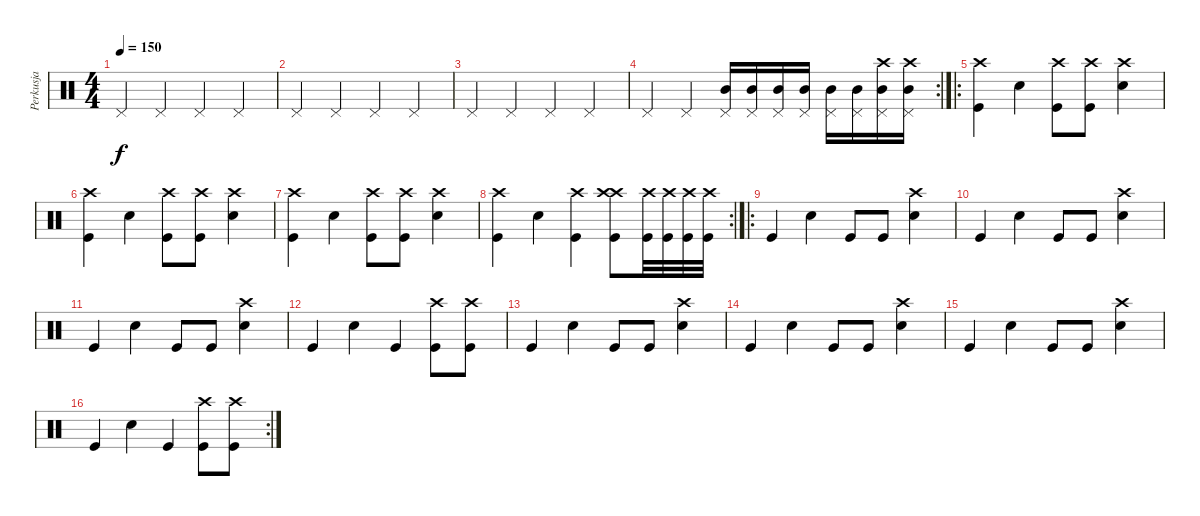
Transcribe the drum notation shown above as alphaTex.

\track ("Perkusja" "Perkusja") {instrument percussion}
\staff {score}
\articulation defaults
\ts (4 4)
\tempo 150
\clef neutral
\ks c "Pedal Hi-Hat (hit)".4{dy f} "Pedal Hi-Hat (hit)".4 "Pedal Hi-Hat (hit)".4 "Pedal Hi-Hat (hit)".4
|
"Pedal Hi-Hat (hit)".4 "Pedal Hi-Hat (hit)".4 "Pedal Hi-Hat (hit)".4 "Pedal Hi-Hat (hit)".4 |
"Pedal Hi-Hat (hit)".4 "Pedal Hi-Hat (hit)".4 "Pedal Hi-Hat (hit)".4 "Pedal Hi-Hat (hit)".4 |
\rc 2 "Pedal Hi-Hat (hit)".4 "Pedal Hi-Hat (hit)".4
("Mid Tom (hit)" "Pedal Hi-Hat (hit)").16 ("Mid Tom (hit)" "Pedal Hi-Hat (hit)").16 ("Mid Tom (hit)" "Pedal Hi-Hat (hit)").16 ("Mid Tom (hit)" "Pedal Hi-Hat (hit)").16 ("Mid Tom (hit)" "Pedal Hi-Hat (hit)").16 ("Mid Tom (hit)" "Pedal Hi-Hat (hit)").16 ("Mid Tom (hit)" "Crash high (hit)" "Pedal Hi-Hat (hit)").16 ("Mid Tom (hit)" "Crash high (hit)" "Pedal Hi-Hat (hit)").16 |
\ro
("Kick (hit)" "Crash high (hit)").4 "Electric Snare (hit)".4 ("Kick (hit)" "Crash high (hit)").8 ("Kick (hit)" "Crash high (hit)").8 ("Crash high (hit)" "Electric Snare (hit)").4 |
("Kick (hit)" "Crash high (hit)").4 "Electric Snare (hit)".4 ("Kick (hit)" "Crash high (hit)").8 ("Kick (hit)" "Crash high (hit)").8 ("Crash high (hit)" "Electric Snare (hit)").4 |
("Kick (hit)" "Crash high (hit)").4 "Electric Snare (hit)".4 ("Kick (hit)" "Crash high (hit)").8 ("Kick (hit)" "Crash high (hit)").8 ("Crash high (hit)" "Electric Snare (hit)").4 |
\rc 2
("Kick (hit)" "Crash high (hit)").4 "Electric Snare (hit)".4 ("Kick (hit)" "Crash high (hit)").4 ("Crash high (hit)" "Kick (hit)" "Crash high (hit)").8 ("Crash high (hit)" "Kick (hit)").32 ("Crash high (hit)" "Kick (hit)").32 ("Crash high (hit)" "Kick (hit)").32 ("Crash high (hit)" "Kick (hit)").32 |
\ro "Kick (hit)".4 "Electric Snare (hit)".4 "Kick (hit)".8 "Kick (hit)".8
("Crash high (hit)" "Electric Snare (hit)").4 |
"Kick (hit)".4 "Electric Snare (hit)".4 "Kick (hit)".8 "Kick (hit)".8 ("Crash high (hit)" "Electric Snare (hit)").4 |
"Kick (hit)".4 "Electric Snare (hit)".4 "Kick (hit)".8 "Kick (hit)".8 ("Crash high (hit)" "Electric Snare (hit)").4 |
"Kick (hit)".4 "Electric Snare (hit)".4 "Kick (hit)".4 ("Crash high (hit)" "Kick (hit)").8 ("Crash high (hit)" "Kick (hit)").8 |
"Kick (hit)".4 "Electric Snare (hit)".4 "Kick (hit)".8 "Kick (hit)".8 ("Crash high (hit)" "Electric Snare (hit)").4 |
"Kick (hit)".4 "Electric Snare (hit)".4 "Kick (hit)".8 "Kick (hit)".8 ("Crash high (hit)" "Electric Snare (hit)").4 |
"Kick (hit)".4 "Electric Snare (hit)".4 "Kick (hit)".8 "Kick (hit)".8 ("Crash high (hit)" "Electric Snare (hit)").4 |
\rc 2 "Kick (hit)".4 "Electric Snare (hit)".4 "Kick (hit)".4
("Crash high (hit)" "Kick (hit)").8 ("Crash high (hit)" "Kick (hit)").8
